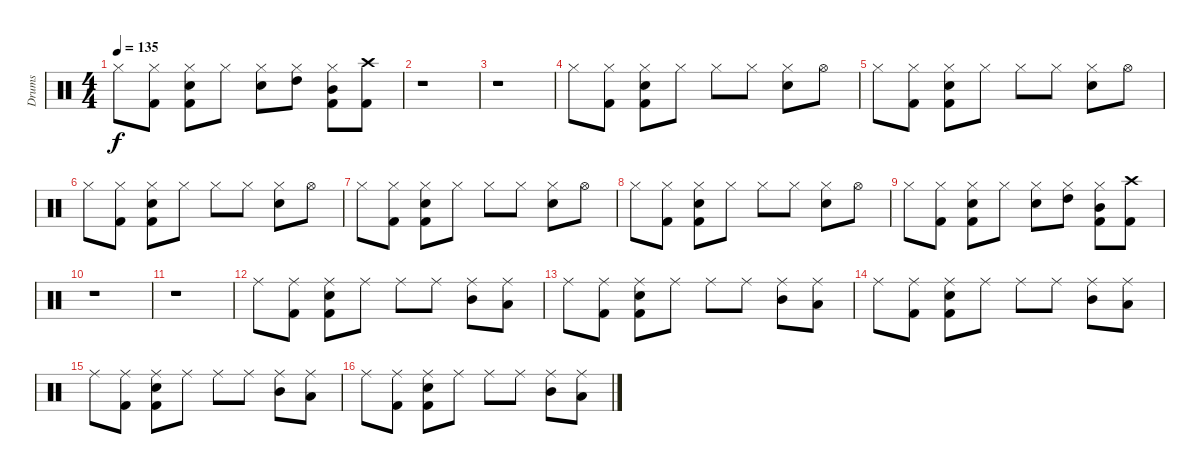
\track ("Drums" "Drums") {instrument percussion}
\staff {score}
\articulation defaults
\ts (4 4)
\tempo 135
\clef neutral
\ks c "Hi-Hat (closed)".8{dy f}
("Kick (hit) 2" "Hi-Hat (closed)").8 ("Kick (hit) 2" "Snare (hit) 2" "Hi-Hat (closed)").8 "Hi-Hat (closed)".8 ("Hi-Hat (closed)" "Snare (hit) 2").8 ("Hi-Hat (closed)" "High Tom (hit)").8 ("Kick (hit) 2" "Hi-Hat (closed)" "Mid Tom (hit)").8 ("Kick (hit) 2" "Crash high (hit)").8 |
r.1 |
r.1 |
"Hi-Hat (closed)".8 ("Hi-Hat (closed)" "Kick (hit) 2").8 ("Hi-Hat (closed)" "Kick (hit) 2" "Snare (hit) 2").8 "Hi-Hat (closed)".8 "Hi-Hat (closed)".8 "Hi-Hat (closed)".8 ("Hi-Hat (closed)" "Snare (hit) 2").8 "Hi-Hat (open)".8 |
"Hi-Hat (closed)".8 ("Hi-Hat (closed)" "Kick (hit) 2").8 ("Hi-Hat (closed)" "Kick (hit) 2" "Snare (hit) 2").8 "Hi-Hat (closed)".8 "Hi-Hat (closed)".8 "Hi-Hat (closed)".8 ("Hi-Hat (closed)" "Snare (hit) 2").8 "Hi-Hat (open)".8 |
"Hi-Hat (closed)".8 ("Hi-Hat (closed)" "Kick (hit) 2").8 ("Hi-Hat (closed)" "Kick (hit) 2" "Snare (hit) 2").8 "Hi-Hat (closed)".8 "Hi-Hat (closed)".8 "Hi-Hat (closed)".8 ("Hi-Hat (closed)" "Snare (hit) 2").8 "Hi-Hat (open)".8 |
"Hi-Hat (closed)".8 ("Hi-Hat (closed)" "Kick (hit) 2").8 ("Hi-Hat (closed)" "Kick (hit) 2" "Snare (hit) 2").8 "Hi-Hat (closed)".8 "Hi-Hat (closed)".8 "Hi-Hat (closed)".8 ("Hi-Hat (closed)" "Snare (hit) 2").8 "Hi-Hat (open)".8 |
"Hi-Hat (closed)".8 ("Hi-Hat (closed)" "Kick (hit) 2").8 ("Hi-Hat (closed)" "Kick (hit) 2" "Snare (hit) 2").8 "Hi-Hat (closed)".8 "Hi-Hat (closed)".8 "Hi-Hat (closed)".8 ("Hi-Hat (closed)" "Snare (hit) 2").8 "Hi-Hat (open)".8 |
"Hi-Hat (closed)".8 ("Kick (hit) 2" "Hi-Hat (closed)").8 ("Kick (hit) 2" "Snare (hit) 2" "Hi-Hat (closed)").8 "Hi-Hat (closed)".8 ("Hi-Hat (closed)" "Snare (hit) 2").8 ("Hi-Hat (closed)" "High Tom (hit)").8 ("Kick (hit) 2" "Hi-Hat (closed)" "Mid Tom (hit)").8 ("Kick (hit) 2" "Crash high (hit)").8 |
r.1 |
r.1 |
"Ride (middle)".8 ("Kick (hit) 2" "Ride (middle)").8 ("Kick (hit) 2" "Snare (hit) 2" "Ride (middle)").8 "Ride (middle)".8 "Ride (middle)".8 "Ride (middle)".8 ("Mid Tom (hit)" "Ride (middle)").8 ("Low Tom (hit)" "Ride (middle)").8 |
"Ride (middle)".8 ("Kick (hit) 2" "Ride (middle)").8 ("Kick (hit) 2" "Snare (hit) 2" "Ride (middle)").8 "Ride (middle)".8 "Ride (middle)".8 "Ride (middle)".8 ("Mid Tom (hit)" "Ride (middle)").8 ("Low Tom (hit)" "Ride (middle)").8 |
"Ride (middle)".8 ("Kick (hit) 2" "Ride (middle)").8 ("Kick (hit) 2" "Snare (hit) 2" "Ride (middle)").8 "Ride (middle)".8 "Ride (middle)".8 "Ride (middle)".8 ("Mid Tom (hit)" "Ride (middle)").8 ("Low Tom (hit)" "Ride (middle)").8 |
"Ride (middle)".8 ("Kick (hit) 2" "Ride (middle)").8 ("Kick (hit) 2" "Snare (hit) 2" "Ride (middle)").8 "Ride (middle)".8 "Ride (middle)".8 "Ride (middle)".8 ("Mid Tom (hit)" "Ride (middle)").8 ("Low Tom (hit)" "Ride (middle)").8 |
"Ride (middle)".8 ("Kick (hit) 2" "Ride (middle)").8 ("Kick (hit) 2" "Snare (hit) 2" "Ride (middle)").8 "Ride (middle)".8 "Ride (middle)".8 "Ride (middle)".8 ("Mid Tom (hit)" "Ride (middle)").8 ("Low Tom (hit)" "Ride (middle)").8
